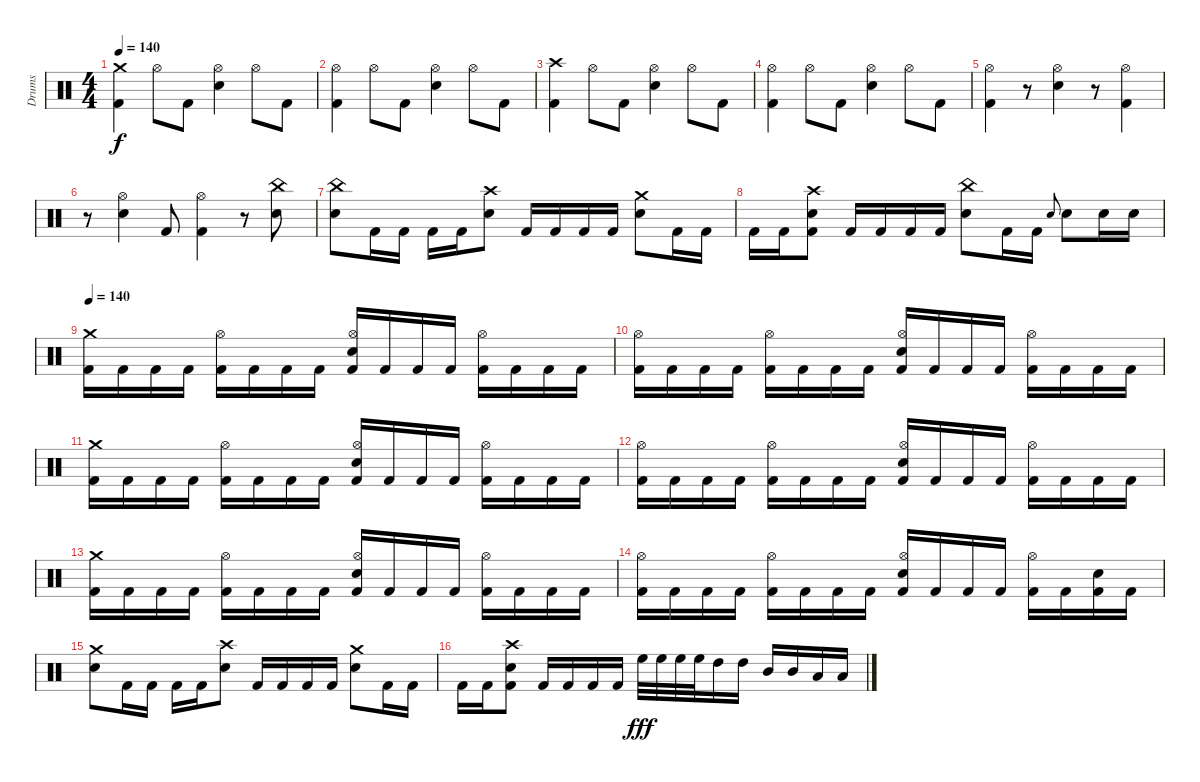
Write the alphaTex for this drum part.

\track ("Drums" "Drums") {instrument percussion}
\staff {score}
\articulation defaults
\ts (4 4)
\tempo 140
\clef neutral
\ks c
("Crash medium (hit)" "Kick (hit) 2").4{dy f} "Hi-Hat (open)".8 "Kick (hit) 2".8 ("Hi-Hat (open)" "Electric Snare (hit)").4 "Hi-Hat (open)".8 "Kick (hit) 2".8 |
("Hi-Hat (open)" "Kick (hit) 2").4 "Hi-Hat (open)".8 "Kick (hit) 2".8 ("Hi-Hat (open)" "Electric Snare (hit)").4 "Hi-Hat (open)".8 "Kick (hit) 2".8 |
("Crash high (hit)" "Kick (hit) 2").4 "Hi-Hat (open)".8 "Kick (hit) 2".8 ("Hi-Hat (open)" "Electric Snare (hit)").4 "Hi-Hat (open)".8 "Kick (hit) 2".8 |
("Hi-Hat (open)" "Kick (hit) 2").4 "Hi-Hat (open)".8 "Kick (hit) 2".8 ("Hi-Hat (open)" "Electric Snare (hit)").4 "Hi-Hat (open)".8 "Kick (hit) 2".8 |
("Hi-Hat (open)" "Kick (hit) 2").4 r.8 ("Hi-Hat (open)" "Electric Snare (hit)").4 r.8 ("Hi-Hat (open)" "Kick (hit) 2").4 |
r.8 ("Hi-Hat (open)" "Electric Snare (hit)").4 "Kick (hit) 2".8 ("Hi-Hat (open)" "Kick (hit) 2").4 r.8 ("China (hit)" "Electric Snare (hit)").8 |
("China (hit)" "Electric Snare (hit)").8 "Kick (hit) 2".16 "Kick (hit) 2".16 "Kick (hit) 2".16 "Kick (hit) 2".16 ("Crash high (hit)" "Electric Snare (hit)").8 "Kick (hit) 2".16 "Kick (hit) 2".16 "Kick (hit) 2".16 "Kick (hit) 2".16 ("Crash medium (hit)" "Electric Snare (hit)").8 "Kick (hit) 2".16 "Kick (hit) 2".16 |
"Kick (hit) 2".16 "Kick (hit) 2".16 ("Crash high (hit)" "Electric Snare (hit)" "Kick (hit) 2").8 "Kick (hit) 2".16 "Kick (hit) 2".16 "Kick (hit) 2".16 "Kick (hit) 2".16 ("China (hit)" "Electric Snare (hit)").8 "Kick (hit) 2".16 "Kick (hit) 2".16 "Electric Snare (hit)".8{gr onbeat} "Electric Snare (hit)".8 "Electric Snare (hit)".16 "Electric Snare (hit)".16 |
\tempo 140
("Crash medium (hit)" "Kick (hit) 2").16 "Kick (hit) 2".16 "Kick (hit) 2".16 "Kick (hit) 2".16 ("Hi-Hat (open)" "Kick (hit) 2").16 "Kick (hit) 2".16 "Kick (hit) 2".16 "Kick (hit) 2".16 ("Hi-Hat (open)" "Electric Snare (hit)" "Kick (hit) 2").16 "Kick (hit) 2".16 "Kick (hit) 2".16 "Kick (hit) 2".16 ("Hi-Hat (open)" "Kick (hit) 2").16 "Kick (hit) 2".16 "Kick (hit) 2".16 "Kick (hit) 2".16 |
("Hi-Hat (open)" "Kick (hit) 2").16 "Kick (hit) 2".16 "Kick (hit) 2".16 "Kick (hit) 2".16 ("Hi-Hat (open)" "Kick (hit) 2").16 "Kick (hit) 2".16 "Kick (hit) 2".16 "Kick (hit) 2".16 ("Hi-Hat (open)" "Electric Snare (hit)" "Kick (hit) 2").16 "Kick (hit) 2".16 "Kick (hit) 2".16 "Kick (hit) 2".16 ("Hi-Hat (open)" "Kick (hit) 2").16 "Kick (hit) 2".16 "Kick (hit) 2".16 "Kick (hit) 2".16 |
("Crash medium (hit)" "Kick (hit) 2").16 "Kick (hit) 2".16 "Kick (hit) 2".16 "Kick (hit) 2".16 ("Hi-Hat (open)" "Kick (hit) 2").16 "Kick (hit) 2".16 "Kick (hit) 2".16 "Kick (hit) 2".16 ("Hi-Hat (open)" "Electric Snare (hit)" "Kick (hit) 2").16 "Kick (hit) 2".16 "Kick (hit) 2".16 "Kick (hit) 2".16 ("Hi-Hat (open)" "Kick (hit) 2").16 "Kick (hit) 2".16 "Kick (hit) 2".16 "Kick (hit) 2".16 |
("Hi-Hat (open)" "Kick (hit) 2").16 "Kick (hit) 2".16 "Kick (hit) 2".16 "Kick (hit) 2".16 ("Hi-Hat (open)" "Kick (hit) 2").16 "Kick (hit) 2".16 "Kick (hit) 2".16 "Kick (hit) 2".16 ("Hi-Hat (open)" "Electric Snare (hit)" "Kick (hit) 2").16 "Kick (hit) 2".16 "Kick (hit) 2".16 "Kick (hit) 2".16 ("Hi-Hat (open)" "Kick (hit) 2").16 "Kick (hit) 2".16 "Kick (hit) 2".16 "Kick (hit) 2".16 |
("Crash medium (hit)" "Kick (hit) 2").16 "Kick (hit) 2".16 "Kick (hit) 2".16 "Kick (hit) 2".16 ("Hi-Hat (open)" "Kick (hit) 2").16 "Kick (hit) 2".16 "Kick (hit) 2".16 "Kick (hit) 2".16 ("Hi-Hat (open)" "Electric Snare (hit)" "Kick (hit) 2").16 "Kick (hit) 2".16 "Kick (hit) 2".16 "Kick (hit) 2".16 ("Hi-Hat (open)" "Kick (hit) 2").16 "Kick (hit) 2".16 "Kick (hit) 2".16 "Kick (hit) 2".16 |
("Hi-Hat (open)" "Kick (hit) 2").16 "Kick (hit) 2".16 "Kick (hit) 2".16 "Kick (hit) 2".16 ("Hi-Hat (open)" "Kick (hit) 2").16 "Kick (hit) 2".16 "Kick (hit) 2".16 "Kick (hit) 2".16 ("Hi-Hat (open)" "Electric Snare (hit)" "Kick (hit) 2").16 "Kick (hit) 2".16 "Kick (hit) 2".16 "Kick (hit) 2".16 ("Hi-Hat (open)" "Kick (hit) 2").16 "Kick (hit) 2".16 ("Electric Snare (hit)" "Kick (hit) 2").16 "Kick (hit) 2".16 |
("Crash medium (hit)" "Electric Snare (hit)").8 "Kick (hit) 2".16 "Kick (hit) 2".16 "Kick (hit) 2".16 "Kick (hit) 2".16 ("Crash high (hit)" "Electric Snare (hit)").8 "Kick (hit) 2".16 "Kick (hit) 2".16 "Kick (hit) 2".16 "Kick (hit) 2".16 ("Crash medium (hit)" "Electric Snare (hit)").8 "Kick (hit) 2".16 "Kick (hit) 2".16 |
"Kick (hit) 2".16 "Kick (hit) 2".16 ("Crash high (hit)" "Electric Snare (hit)" "Kick (hit) 2").8 "Kick (hit) 2".16 "Kick (hit) 2".16 "Kick (hit) 2".16 "Kick (hit) 2".16 "High Floor Tom (hit)".32{dy fff} "High Floor Tom (hit)".32 "High Floor Tom (hit)".32 "High Floor Tom (hit)".32 "High Tom (hit)".16 "High Tom (hit)".16 "Mid Tom (hit)".16 "Mid Tom (hit)".16 "Low Tom (hit)".16 "Low Tom (hit)".16
